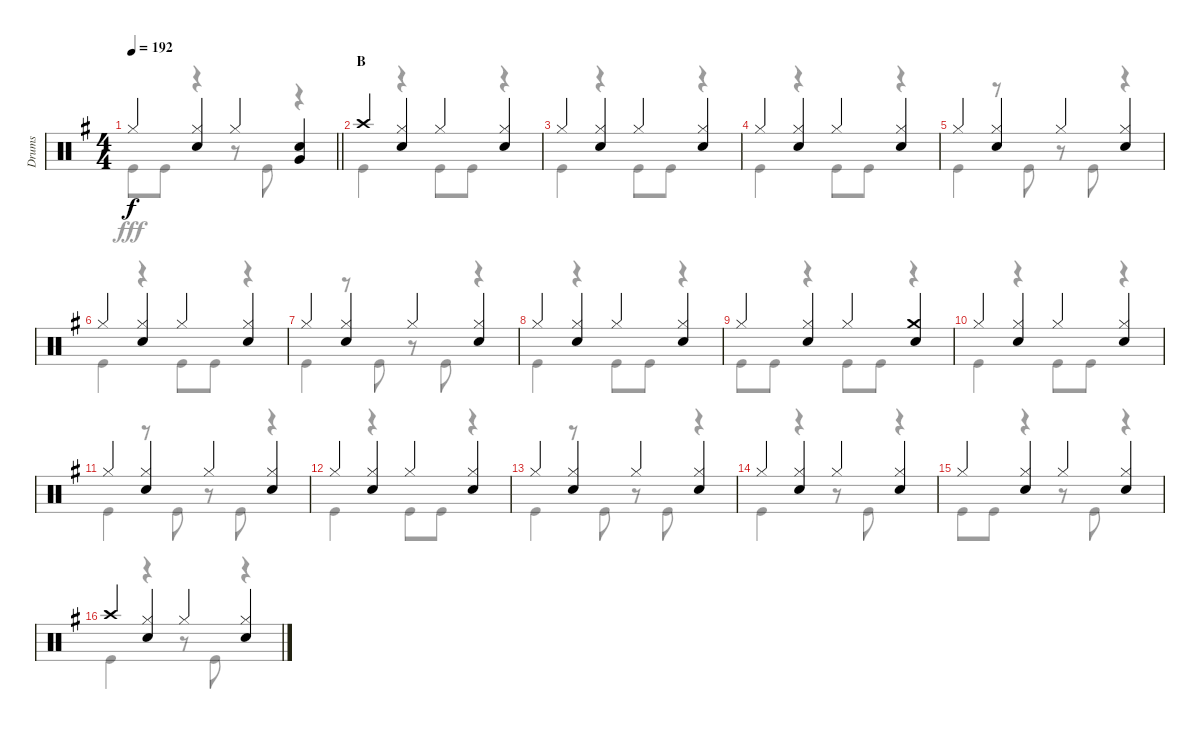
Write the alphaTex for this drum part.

\track ("Drums" "Drums") {instrument percussion}
\staff {score}
\articulation defaults
\voice
\ts (4 4)
\tempo 192
\clef neutral
\barLineRight lightlight
\ks g "Hi-Hat (closed)".4{dy f}
("Hi-Hat (closed)" "Snare (hit) 2").4 "Hi-Hat (closed)".4 ("Snare (hit) 2" "Very Low Tom (hit)").4 |
\section ("" "B")
"Crash high (hit)".4 ("Hi-Hat (closed)" "Snare (hit) 2").4 "Hi-Hat (closed)".4 ("Hi-Hat (closed)" "Snare (hit) 2").4 |
"Hi-Hat (closed)".4 ("Hi-Hat (closed)" "Snare (hit) 2").4 "Hi-Hat (closed)".4 ("Hi-Hat (closed)" "Snare (hit) 2").4 |
"Hi-Hat (closed)".4 ("Hi-Hat (closed)" "Snare (hit) 2").4 "Hi-Hat (closed)".4 ("Hi-Hat (closed)" "Snare (hit) 2").4 |
"Hi-Hat (closed)".4 ("Hi-Hat (closed)" "Snare (hit) 2").4 "Hi-Hat (closed)".4 ("Hi-Hat (closed)" "Snare (hit) 2").4 |
"Hi-Hat (closed)".4 ("Hi-Hat (closed)" "Snare (hit) 2").4 "Hi-Hat (closed)".4 ("Hi-Hat (closed)" "Snare (hit) 2").4 |
"Hi-Hat (closed)".4 ("Hi-Hat (closed)" "Snare (hit) 2").4 "Hi-Hat (closed)".4 ("Hi-Hat (closed)" "Snare (hit) 2").4 |
"Hi-Hat (closed)".4 ("Hi-Hat (closed)" "Snare (hit) 2").4 "Hi-Hat (closed)".4 ("Hi-Hat (closed)" "Snare (hit) 2").4 |
"Hi-Hat (closed)".4 ("Hi-Hat (closed)" "Snare (hit) 2").4 "Hi-Hat (closed)".4 ("Crash medium (hit)" "Snare (hit) 2").4 |
"Hi-Hat (closed)".4 ("Hi-Hat (closed)" "Snare (hit) 2").4 "Hi-Hat (closed)".4 ("Hi-Hat (closed)" "Snare (hit) 2").4 |
"Hi-Hat (closed)".4 ("Hi-Hat (closed)" "Snare (hit) 2").4 "Hi-Hat (closed)".4 ("Hi-Hat (closed)" "Snare (hit) 2").4 |
"Hi-Hat (closed)".4 ("Hi-Hat (closed)" "Snare (hit) 2").4 "Hi-Hat (closed)".4 ("Hi-Hat (closed)" "Snare (hit) 2").4 |
"Hi-Hat (closed)".4 ("Hi-Hat (closed)" "Snare (hit) 2").4 "Hi-Hat (closed)".4 ("Hi-Hat (closed)" "Snare (hit) 2").4 |
"Hi-Hat (closed)".4 ("Hi-Hat (closed)" "Snare (hit) 2").4 "Hi-Hat (closed)".4 ("Hi-Hat (closed)" "Snare (hit) 2").4 |
"Hi-Hat (closed)".4 ("Hi-Hat (closed)" "Snare (hit) 2").4 "Hi-Hat (closed)".4 ("Hi-Hat (closed)" "Snare (hit) 2").4 |
"Crash high (hit)".4 ("Hi-Hat (closed)" "Snare (hit) 2").4 "Hi-Hat (closed)".4 ("Hi-Hat (closed)" "Snare (hit) 2").4
\voice
\clef neutral
\ottava regular
\simile none
\barLineRight lightlight
\ks g "Kick (hit)".8{dy fff} "Kick (hit)".8
r.4 r.8 "Kick (hit)".8 r.4 |
"Kick (hit)".4 r.4 "Kick (hit)".8 "Kick (hit)".8 r.4 |
"Kick (hit)".4 r.4 "Kick (hit)".8 "Kick (hit)".8 r.4 |
"Kick (hit)".4 r.4 "Kick (hit)".8 "Kick (hit)".8 r.4 |
"Kick (hit)".4 r.8 "Kick (hit)".8 r.8 "Kick (hit)".8 r.4 |
"Kick (hit)".4 r.4 "Kick (hit)".8 "Kick (hit)".8 r.4 |
"Kick (hit)".4 r.8 "Kick (hit)".8 r.8 "Kick (hit)".8 r.4 |
"Kick (hit)".4 r.4 "Kick (hit)".8 "Kick (hit)".8 r.4 |
"Kick (hit)".8 "Kick (hit)".8 r.4 "Kick (hit)".8 "Kick (hit)".8 r.4 |
"Kick (hit)".4 r.4 "Kick (hit)".8 "Kick (hit)".8 r.4 |
"Kick (hit)".4 r.8 "Kick (hit)".8 r.8 "Kick (hit)".8 r.4 |
"Kick (hit)".4 r.4 "Kick (hit)".8 "Kick (hit)".8 r.4 |
"Kick (hit)".4 r.8 "Kick (hit)".8 r.8 "Kick (hit)".8 r.4 |
"Kick (hit)".4 r.4 r.8 "Kick (hit)".8 r.4 |
"Kick (hit)".8 "Kick (hit)".8 r.4 r.8 "Kick (hit)".8 r.4 |
"Kick (hit)".4 r.4 r.8 "Kick (hit)".8 r.4
